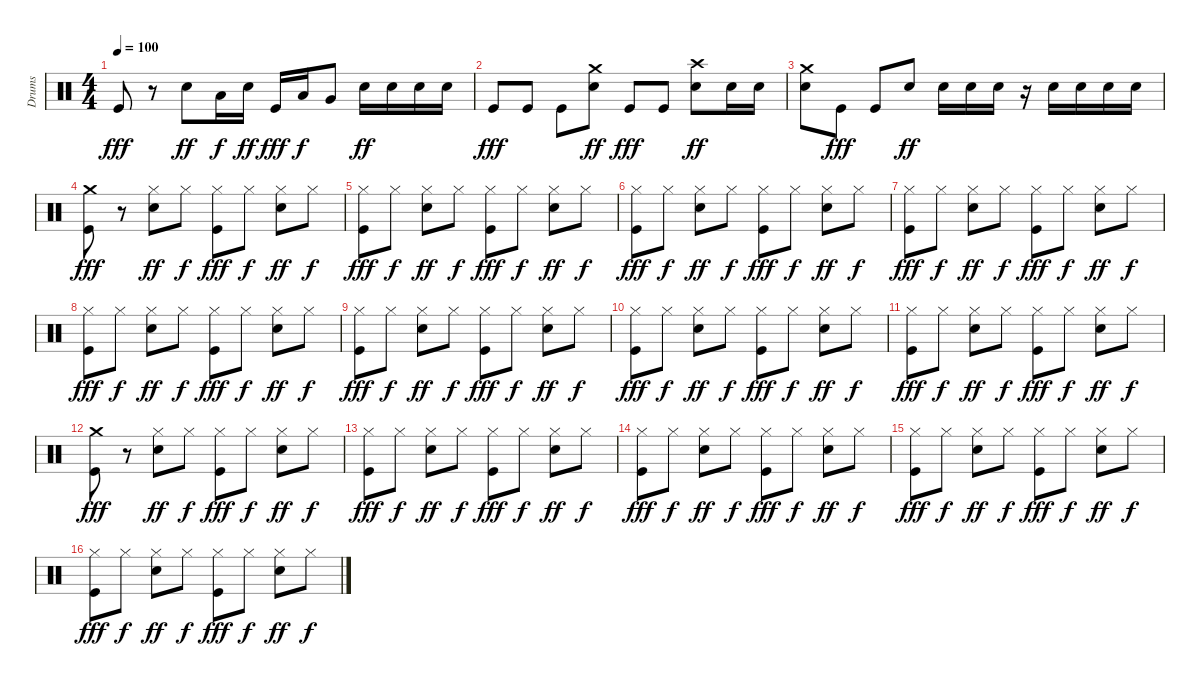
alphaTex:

\track ("Drums" "Drums") {instrument percussion}
\staff {score}
\articulation defaults
\ts (4 4)
\tempo 100
\clef neutral
\ks c "Kick (hit)".8{dy fff}
r.8 "Snare (hit) 2".8{dy ff} "Low Tom (hit)".16{dy f} "Snare (hit) 2".16{dy ff} "Kick (hit)".16{dy fff} "Low Tom (hit)".16{dy f} "Very Low Tom (hit)".8 "Snare (hit) 2".16{dy ff} "Snare (hit) 2".16 "Snare (hit) 2".16 "Snare (hit) 2".16 |
"Kick (hit)".8{dy fff} "Kick (hit)".8 "Kick (hit)".8 ("Snare (hit) 2" "Crash medium (hit)").8{dy ff} "Kick (hit)".8{dy fff} "Kick (hit)".8 ("Snare (hit) 2" "Crash high (hit)").8{dy ff} "Snare (hit) 2".16 "Snare (hit) 2".16 |
("Snare (hit) 2" "Crash medium (hit)").8 "Kick (hit)".8{dy fff} "Kick (hit)".8 "Snare (hit) 2".8{dy ff} "Snare (hit) 2".16 "Snare (hit) 2".16 "Snare (hit) 2".16 r.16 "Snare (hit) 2".16 "Snare (hit) 2".16 "Snare (hit) 2".16 "Snare (hit) 2".16 |
("Kick (hit)" "Crash medium (hit)").8{dy fff} r.8 ("Snare (hit) 2" "Hi-Hat (closed)").8{dy ff} "Hi-Hat (closed)".8{dy f} ("Kick (hit)" "Hi-Hat (closed)").8{dy fff} "Hi-Hat (closed)".8{dy f} ("Snare (hit) 2" "Hi-Hat (closed)").8{dy ff} "Hi-Hat (closed)".8{dy f} |
("Kick (hit)" "Hi-Hat (closed)").8{dy fff} "Hi-Hat (closed)".8{dy f} ("Snare (hit) 2" "Hi-Hat (closed)").8{dy ff} "Hi-Hat (closed)".8{dy f} ("Kick (hit)" "Hi-Hat (closed)").8{dy fff} "Hi-Hat (closed)".8{dy f} ("Snare (hit) 2" "Hi-Hat (closed)").8{dy ff} "Hi-Hat (closed)".8{dy f} |
("Kick (hit)" "Hi-Hat (closed)").8{dy fff} "Hi-Hat (closed)".8{dy f} ("Snare (hit) 2" "Hi-Hat (closed)").8{dy ff} "Hi-Hat (closed)".8{dy f} ("Kick (hit)" "Hi-Hat (closed)").8{dy fff} "Hi-Hat (closed)".8{dy f} ("Snare (hit) 2" "Hi-Hat (closed)").8{dy ff} "Hi-Hat (closed)".8{dy f} |
("Kick (hit)" "Hi-Hat (closed)").8{dy fff} "Hi-Hat (closed)".8{dy f} ("Snare (hit) 2" "Hi-Hat (closed)").8{dy ff} "Hi-Hat (closed)".8{dy f} ("Kick (hit)" "Hi-Hat (closed)").8{dy fff} "Hi-Hat (closed)".8{dy f} ("Snare (hit) 2" "Hi-Hat (closed)").8{dy ff} "Hi-Hat (closed)".8{dy f} |
("Kick (hit)" "Hi-Hat (closed)").8{dy fff} "Hi-Hat (closed)".8{dy f} ("Snare (hit) 2" "Hi-Hat (closed)").8{dy ff} "Hi-Hat (closed)".8{dy f} ("Kick (hit)" "Hi-Hat (closed)").8{dy fff} "Hi-Hat (closed)".8{dy f} ("Snare (hit) 2" "Hi-Hat (closed)").8{dy ff} "Hi-Hat (closed)".8{dy f} |
("Kick (hit)" "Hi-Hat (closed)").8{dy fff} "Hi-Hat (closed)".8{dy f} ("Snare (hit) 2" "Hi-Hat (closed)").8{dy ff} "Hi-Hat (closed)".8{dy f} ("Kick (hit)" "Hi-Hat (closed)").8{dy fff} "Hi-Hat (closed)".8{dy f} ("Snare (hit) 2" "Hi-Hat (closed)").8{dy ff} "Hi-Hat (closed)".8{dy f} |
("Kick (hit)" "Hi-Hat (closed)").8{dy fff} "Hi-Hat (closed)".8{dy f} ("Snare (hit) 2" "Hi-Hat (closed)").8{dy ff} "Hi-Hat (closed)".8{dy f} ("Kick (hit)" "Hi-Hat (closed)").8{dy fff} "Hi-Hat (closed)".8{dy f} ("Snare (hit) 2" "Hi-Hat (closed)").8{dy ff} "Hi-Hat (closed)".8{dy f} |
("Kick (hit)" "Hi-Hat (closed)").8{dy fff} "Hi-Hat (closed)".8{dy f} ("Snare (hit) 2" "Hi-Hat (closed)").8{dy ff} "Hi-Hat (closed)".8{dy f} ("Kick (hit)" "Hi-Hat (closed)").8{dy fff} "Hi-Hat (closed)".8{dy f} ("Snare (hit) 2" "Hi-Hat (closed)").8{dy ff} "Hi-Hat (closed)".8{dy f} |
("Kick (hit)" "Crash medium (hit)").8{dy fff} r.8 ("Snare (hit) 2" "Hi-Hat (closed)").8{dy ff} "Hi-Hat (closed)".8{dy f} ("Kick (hit)" "Hi-Hat (closed)").8{dy fff} "Hi-Hat (closed)".8{dy f} ("Snare (hit) 2" "Hi-Hat (closed)").8{dy ff} "Hi-Hat (closed)".8{dy f} |
("Kick (hit)" "Hi-Hat (closed)").8{dy fff} "Hi-Hat (closed)".8{dy f} ("Snare (hit) 2" "Hi-Hat (closed)").8{dy ff} "Hi-Hat (closed)".8{dy f} ("Kick (hit)" "Hi-Hat (closed)").8{dy fff} "Hi-Hat (closed)".8{dy f} ("Snare (hit) 2" "Hi-Hat (closed)").8{dy ff} "Hi-Hat (closed)".8{dy f} |
("Kick (hit)" "Hi-Hat (closed)").8{dy fff} "Hi-Hat (closed)".8{dy f} ("Snare (hit) 2" "Hi-Hat (closed)").8{dy ff} "Hi-Hat (closed)".8{dy f} ("Kick (hit)" "Hi-Hat (closed)").8{dy fff} "Hi-Hat (closed)".8{dy f} ("Snare (hit) 2" "Hi-Hat (closed)").8{dy ff} "Hi-Hat (closed)".8{dy f} |
("Kick (hit)" "Hi-Hat (closed)").8{dy fff} "Hi-Hat (closed)".8{dy f} ("Snare (hit) 2" "Hi-Hat (closed)").8{dy ff} "Hi-Hat (closed)".8{dy f} ("Kick (hit)" "Hi-Hat (closed)").8{dy fff} "Hi-Hat (closed)".8{dy f} ("Snare (hit) 2" "Hi-Hat (closed)").8{dy ff} "Hi-Hat (closed)".8{dy f} |
("Kick (hit)" "Hi-Hat (closed)").8{dy fff} "Hi-Hat (closed)".8{dy f} ("Snare (hit) 2" "Hi-Hat (closed)").8{dy ff} "Hi-Hat (closed)".8{dy f} ("Kick (hit)" "Hi-Hat (closed)").8{dy fff} "Hi-Hat (closed)".8{dy f} ("Snare (hit) 2" "Hi-Hat (closed)").8{dy ff} "Hi-Hat (closed)".8{dy f}
